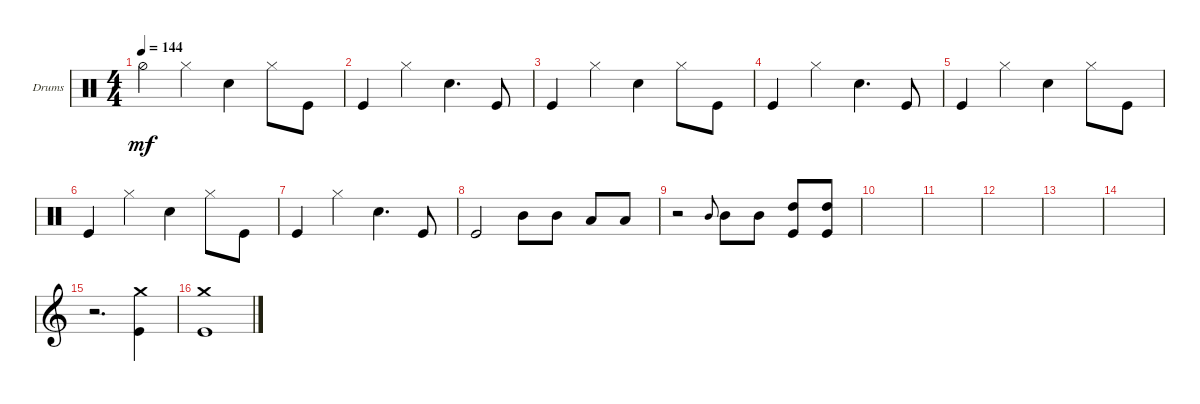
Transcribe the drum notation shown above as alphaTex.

\bracketExtendMode groupsimilarinstruments
\firstSystemTrackNameOrientation horizontal
\otherSystemsTrackNameOrientation horizontal
\track ("Drums" "Drums") {instrument percussion}
\staff {score}
\articulation defaults
\ts (4 4)
\tempo 144
\clef neutral
\ks c "Hi-Hat (half)".4{dy mf} "Hi-Hat (closed)".4 "Snare (hit) 2".4 "Hi-Hat (closed)".8 "Kick (hit)".8
|
"Kick (hit)".4 "Hi-Hat (closed)".4 "Snare (hit) 2".4{d} "Kick (hit)".8 |
"Kick (hit)".4 "Hi-Hat (closed)".4 "Snare (hit) 2".4 "Hi-Hat (closed)".8 "Kick (hit)".8 |
"Kick (hit)".4 "Hi-Hat (closed)".4 "Snare (hit) 2".4{d} "Kick (hit)".8 |
"Kick (hit)".4 "Hi-Hat (closed)".4 "Snare (hit) 2".4 "Hi-Hat (closed)".8 "Kick (hit)".8 |
"Kick (hit)".4 "Hi-Hat (closed)".4 "Snare (hit) 2".4 "Hi-Hat (closed)".8 "Kick (hit)".8 |
"Kick (hit)".4 "Hi-Hat (closed)".4 "Snare (hit) 2".4{d} "Kick (hit)".8 |
"Kick (hit)".2 "Mid Tom (hit)".8 "Mid Tom (hit)".8 "Low Tom (hit)".8 "Low Tom (hit)".8 |
r.2 "Mid Tom (hit)".8{gr onbeat} "Mid Tom (hit)".8 "Mid Tom (hit)".8 ("High Tom (hit)" "Kick (hit)").8 ("High Tom (hit)" "Kick (hit)").8 |
|
|
|
|
|
\clef g2
r.2{d} ("Kick (hit)" "Crash medium (hit)").4 |
("Kick (hit)" "Crash medium (hit)").1
